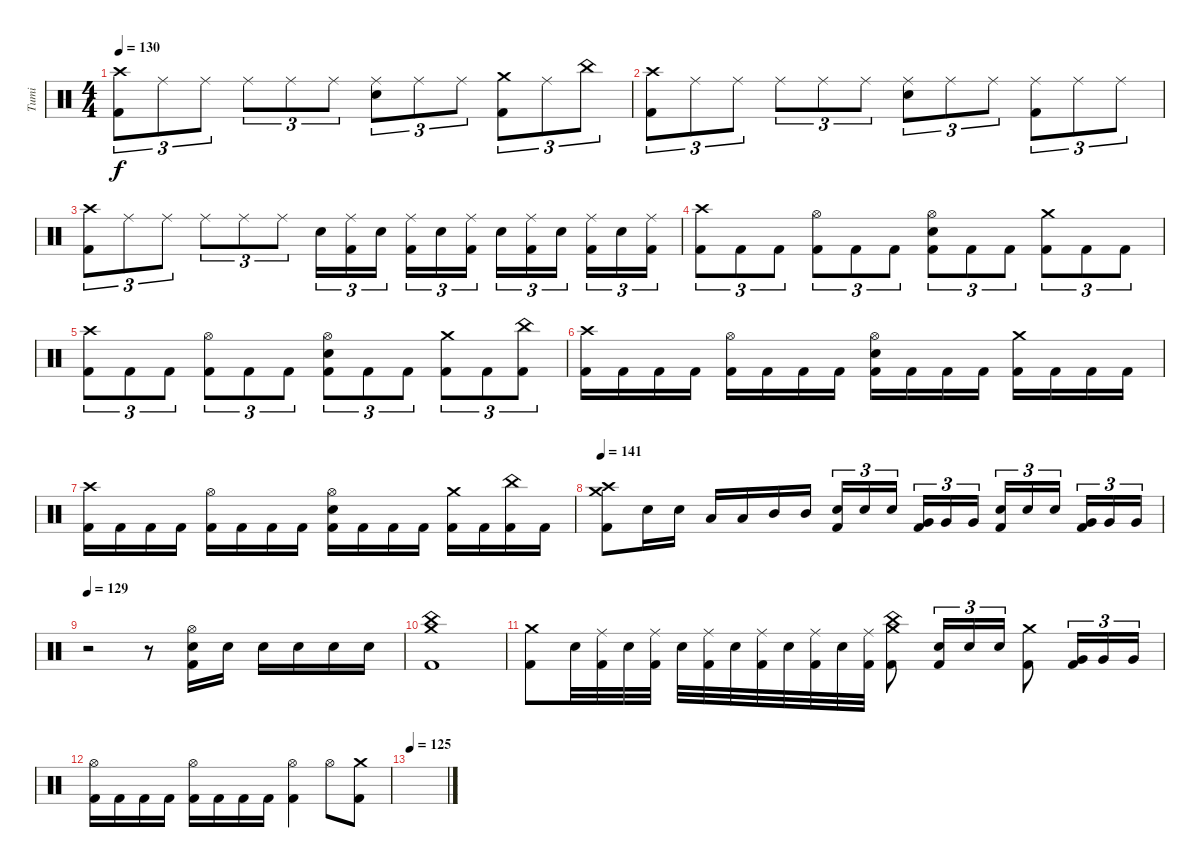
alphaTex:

\track ("Tumi" "Tumi") {instrument percussion}
\staff {score}
\articulation defaults
\ts (4 4)
\tempo 130
\clef neutral
\ks c
("Crash high (hit)" "Kick (hit) 2").8{tu (3 2) dy f} "Ride (middle)".8{tu (3 2)} "Ride (middle)".8{tu (3 2)} "Ride (middle)".8{tu (3 2)} "Ride (middle)".8{tu (3 2)} "Ride (middle)".8{tu (3 2)} ("Ride (middle)" "Electric Snare (hit)").8{tu (3 2)} "Ride (middle)".8{tu (3 2)} "Ride (middle)".8{tu (3 2)} ("Crash medium (hit)" "Kick (hit) 2").8{tu (3 2)} "Ride (middle)".8{tu (3 2)} "China (hit)".8{tu (3 2)} |
("Crash high (hit)" "Kick (hit) 2").8{tu (3 2)} "Ride (middle)".8{tu (3 2)} "Ride (middle)".8{tu (3 2)} "Ride (middle)".8{tu (3 2)} "Ride (middle)".8{tu (3 2)} "Ride (middle)".8{tu (3 2)} ("Ride (middle)" "Electric Snare (hit)").8{tu (3 2)} "Ride (middle)".8{tu (3 2)} "Ride (middle)".8{tu (3 2)} ("Ride (middle)" "Kick (hit) 2").8{tu (3 2)} "Ride (middle)".8{tu (3 2)} "Ride (middle)".8{tu (3 2)} |
("Crash high (hit)" "Kick (hit) 2").8{tu (3 2)} "Ride (middle)".8{tu (3 2)} "Ride (middle)".8{tu (3 2)} "Ride (middle)".8{tu (3 2)} "Ride (middle)".8{tu (3 2)} "Ride (middle)".8{tu (3 2)} "Electric Snare (hit)".16{tu (3 2)} ("Ride (middle)" "Kick (hit) 2").16{tu (3 2)} "Electric Snare (hit)".16{tu (3 2) beam splitsecondary} ("Ride (middle)" "Kick (hit) 2").16{tu (3 2)} "Electric Snare (hit)".16{tu (3 2)} ("Ride (middle)" "Kick (hit) 2").16{tu (3 2)} "Electric Snare (hit)".16{tu (3 2)} ("Ride (middle)" "Kick (hit) 2").16{tu (3 2)} "Electric Snare (hit)".16{tu (3 2) beam splitsecondary} ("Ride (middle)" "Kick (hit) 2").16{tu (3 2)} "Electric Snare (hit)".16{tu (3 2)} ("Ride (middle)" "Kick (hit) 2").16{tu (3 2)} |
("Crash high (hit)" "Kick (hit) 2").8{tu (3 2)} "Kick (hit) 2".8{tu (3 2)} "Kick (hit) 2".8{tu (3 2)} ("Hi-Hat (open)" "Kick (hit) 2").8{tu (3 2)} "Kick (hit) 2".8{tu (3 2)} "Kick (hit) 2".8{tu (3 2)} ("Hi-Hat (open)" "Electric Snare (hit)" "Kick (hit) 2").8{tu (3 2)} "Kick (hit) 2".8{tu (3 2)} "Kick (hit) 2".8{tu (3 2)} ("Crash medium (hit)" "Kick (hit) 2").8{tu (3 2)} "Kick (hit) 2".8{tu (3 2)} "Kick (hit) 2".8{tu (3 2)} |
("Crash high (hit)" "Kick (hit) 2").8{tu (3 2)} "Kick (hit) 2".8{tu (3 2)} "Kick (hit) 2".8{tu (3 2)} ("Hi-Hat (open)" "Kick (hit) 2").8{tu (3 2)} "Kick (hit) 2".8{tu (3 2)} "Kick (hit) 2".8{tu (3 2)} ("Hi-Hat (open)" "Electric Snare (hit)" "Kick (hit) 2").8{tu (3 2)} "Kick (hit) 2".8{tu (3 2)} "Kick (hit) 2".8{tu (3 2)} ("Crash medium (hit)" "Kick (hit) 2").8{tu (3 2)} "Kick (hit) 2".8{tu (3 2)} ("China (hit)" "Kick (hit) 2").8{tu (3 2)} |
("Crash high (hit)" "Kick (hit) 2").16 "Kick (hit) 2".16 "Kick (hit) 2".16 "Kick (hit) 2".16 ("Hi-Hat (open)" "Kick (hit) 2").16 "Kick (hit) 2".16 "Kick (hit) 2".16 "Kick (hit) 2".16 ("Hi-Hat (open)" "Electric Snare (hit)" "Kick (hit) 2").16 "Kick (hit) 2".16 "Kick (hit) 2".16 "Kick (hit) 2".16 ("Crash medium (hit)" "Kick (hit) 2").16 "Kick (hit) 2".16 "Kick (hit) 2".16 "Kick (hit) 2".16 |
("Crash high (hit)" "Kick (hit) 2").16 "Kick (hit) 2".16 "Kick (hit) 2".16 "Kick (hit) 2".16 ("Hi-Hat (open)" "Kick (hit) 2").16 "Kick (hit) 2".16 "Kick (hit) 2".16 "Kick (hit) 2".16 ("Hi-Hat (open)" "Electric Snare (hit)" "Kick (hit) 2").16 "Kick (hit) 2".16 "Kick (hit) 2".16 "Kick (hit) 2".16 ("Crash medium (hit)" "Kick (hit) 2").16 "Kick (hit) 2".16 ("China (hit)" "Kick (hit) 2").16 "Kick (hit) 2".16 |
\tempo 141
("Crash medium (hit)" "Crash high (hit)" "Kick (hit) 2").8 "Electric Snare (hit)".16 "Electric Snare (hit)".16 "Low Tom (hit)".16 "Low Tom (hit)".16 "Mid Tom (hit)".16 "Mid Tom (hit)".16 ("Electric Snare (hit)" "Kick (hit) 2").16{tu (3 2)} "Electric Snare (hit)".16{tu (3 2)} "Electric Snare (hit)".16{tu (3 2) beam splitsecondary} ("Very Low Tom (hit)" "Kick (hit) 2").16{tu (3 2)} "Very Low Tom (hit)".16{tu (3 2)} "Very Low Tom (hit)".16{tu (3 2)} ("Electric Snare (hit)" "Kick (hit) 2").16{tu (3 2)} "Electric Snare (hit)".16{tu (3 2)} "Electric Snare (hit)".16{tu (3 2) beam splitsecondary} ("Very Low Tom (hit)" "Kick (hit) 2").16{tu (3 2)} "Very Low Tom (hit)".16{tu (3 2)} "Very Low Tom (hit)".16{tu (3 2)} |
\tempo 129
r.2 r.8 ("Hi-Hat (open)" "Electric Snare (hit)" "Kick (hit) 2").16 "Electric Snare (hit)".16 "Electric Snare (hit)".16 "Electric Snare (hit)".16 "Electric Snare (hit)".16 "Electric Snare (hit)".16 |
("Crash medium (hit)" "China (hit)" "Kick (hit) 2").1 |
("Crash medium (hit)" "Kick (hit) 2").8 "Electric Snare (hit)".32 ("Ride (middle)" "Kick (hit) 2").32 "Electric Snare (hit)".32 ("Ride (middle)" "Kick (hit) 2").32 "Electric Snare (hit)".32 ("Ride (middle)" "Kick (hit) 2").32 "Electric Snare (hit)".32 ("Ride (middle)" "Kick (hit) 2").32 "Electric Snare (hit)".32 ("Ride (middle)" "Kick (hit) 2").32 "Electric Snare (hit)".32 ("Ride (middle)" "Kick (hit) 2").32 ("Crash medium (hit)" "China (hit)" "Kick (hit) 2").8 ("Electric Snare (hit)" "Kick (hit) 2").16{tu (3 2)} "Electric Snare (hit)".16{tu (3 2)} "Electric Snare (hit)".16{tu (3 2)} ("Crash medium (hit)" "Kick (hit) 2").8 ("Very Low Tom (hit)" "Kick (hit) 2").16{tu (3 2)} "Very Low Tom (hit)".16{tu (3 2)} "Very Low Tom (hit)".16{tu (3 2)} |
("Hi-Hat (open)" "Kick (hit) 2").16 "Kick (hit) 2".16 "Kick (hit) 2".16 "Kick (hit) 2".16 ("Hi-Hat (open)" "Kick (hit) 2").16 "Kick (hit) 2".16 "Kick (hit) 2".16 "Kick (hit) 2".16 ("Hi-Hat (open)" "Kick (hit) 2").4 "Hi-Hat (open)".8 ("Crash medium (hit)" "Kick (hit) 2").8 |
\tempo 125
